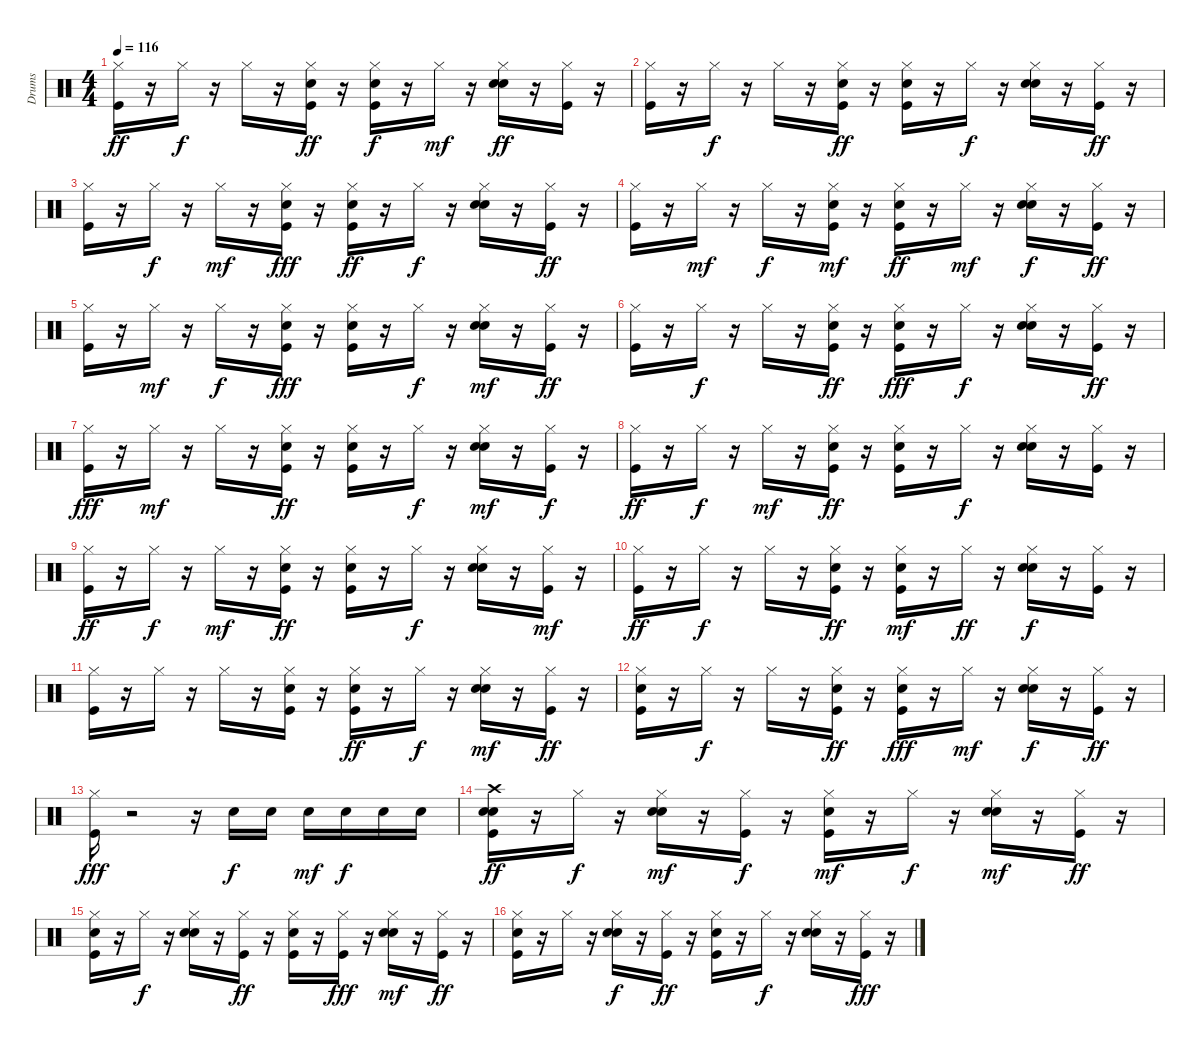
\track ("Drums   " "Drums   ") {instrument percussion}
\staff {score}
\articulation defaults
\ts (4 4)
\tempo 116
\clef neutral
\ks c
("Hi-Hat (closed)" "Kick (hit)").16{dy ff} r.16 "Hi-Hat (closed)".16{dy f} r.16 "Hi-Hat (closed)".16 r.16 ("Hi-Hat (closed)" "Hand Clap (hit)" "Kick (hit)").16{dy ff} r.16 ("Hi-Hat (closed)" "Hand Clap (hit)" "Kick (hit)").16{dy f} r.16 "Hi-Hat (closed)".16{dy mf} r.16 ("Hi-Hat (closed)" "Hand Clap (hit)" "Snare (hit) 2").16{dy ff} r.16 ("Hi-Hat (closed)" "Kick (hit)").16 r.16 |
("Hi-Hat (closed)" "Kick (hit)").16 r.16 "Hi-Hat (closed)".16{dy f} r.16 "Hi-Hat (closed)".16 r.16 ("Hi-Hat (closed)" "Hand Clap (hit)" "Kick (hit)").16{dy ff} r.16 ("Hi-Hat (closed)" "Hand Clap (hit)" "Kick (hit)").16 r.16 "Hi-Hat (closed)".16{dy f} r.16 ("Hi-Hat (closed)" "Hand Clap (hit)" "Snare (hit) 2").16 r.16 ("Hi-Hat (closed)" "Kick (hit)").16{dy ff} r.16 |
("Hi-Hat (closed)" "Kick (hit)").16 r.16 "Hi-Hat (closed)".16{dy f} r.16 "Hi-Hat (closed)".16{dy mf} r.16 ("Hi-Hat (closed)" "Hand Clap (hit)" "Kick (hit)").16{dy fff} r.16 ("Hi-Hat (closed)" "Hand Clap (hit)" "Kick (hit)").16{dy ff} r.16 "Hi-Hat (closed)".16{dy f} r.16 ("Hi-Hat (closed)" "Hand Clap (hit)" "Snare (hit) 2").16 r.16 ("Hi-Hat (closed)" "Kick (hit)").16{dy ff} r.16 |
("Hi-Hat (closed)" "Kick (hit)").16 r.16 "Hi-Hat (closed)".16{dy mf} r.16 "Hi-Hat (closed)".16{dy f} r.16 ("Hi-Hat (closed)" "Hand Clap (hit)" "Kick (hit)").16{dy mf} r.16 ("Hi-Hat (closed)" "Hand Clap (hit)" "Kick (hit)").16{dy ff} r.16 "Hi-Hat (closed)".16{dy mf} r.16 ("Hi-Hat (closed)" "Hand Clap (hit)" "Snare (hit) 2").16{dy f} r.16 ("Hi-Hat (closed)" "Kick (hit)").16{dy ff} r.16 |
("Hi-Hat (closed)" "Kick (hit)").16 r.16 "Hi-Hat (closed)".16{dy mf} r.16 "Hi-Hat (closed)".16{dy f} r.16 ("Hi-Hat (closed)" "Hand Clap (hit)" "Kick (hit)").16{dy fff} r.16 ("Hi-Hat (closed)" "Hand Clap (hit)" "Kick (hit)").16 r.16 "Hi-Hat (closed)".16{dy f} r.16 ("Hi-Hat (closed)" "Hand Clap (hit)" "Snare (hit) 2").16{dy mf} r.16 ("Hi-Hat (closed)" "Kick (hit)").16{dy ff} r.16 |
("Hi-Hat (closed)" "Kick (hit)").16 r.16 "Hi-Hat (closed)".16{dy f} r.16 "Hi-Hat (closed)".16 r.16 ("Hi-Hat (closed)" "Hand Clap (hit)" "Kick (hit)").16{dy ff} r.16 ("Hi-Hat (closed)" "Hand Clap (hit)" "Kick (hit)").16{dy fff} r.16 "Hi-Hat (closed)".16{dy f} r.16 ("Hi-Hat (closed)" "Hand Clap (hit)" "Snare (hit) 2").16 r.16 ("Hi-Hat (closed)" "Kick (hit)").16{dy ff} r.16 |
("Hi-Hat (closed)" "Kick (hit)").16{dy fff} r.16 "Hi-Hat (closed)".16{dy mf} r.16 "Hi-Hat (closed)".16 r.16 ("Hi-Hat (closed)" "Hand Clap (hit)" "Kick (hit)").16{dy ff} r.16 ("Hi-Hat (closed)" "Hand Clap (hit)" "Kick (hit)").16 r.16 "Hi-Hat (closed)".16{dy f} r.16 ("Hi-Hat (closed)" "Hand Clap (hit)" "Snare (hit) 2").16{dy mf} r.16 ("Hi-Hat (closed)" "Kick (hit)").16{dy f} r.16 |
("Hi-Hat (closed)" "Kick (hit)").16{dy ff} r.16 "Hi-Hat (closed)".16{dy f} r.16 "Hi-Hat (closed)".16{dy mf} r.16 ("Hi-Hat (closed)" "Hand Clap (hit)" "Kick (hit)").16{dy ff} r.16 ("Hi-Hat (closed)" "Hand Clap (hit)" "Kick (hit)").16 r.16 "Hi-Hat (closed)".16{dy f} r.16 ("Hi-Hat (closed)" "Hand Clap (hit)" "Snare (hit) 2").16 r.16 ("Hi-Hat (closed)" "Kick (hit)").16 r.16 |
("Hi-Hat (closed)" "Kick (hit)").16{dy ff} r.16 "Hi-Hat (closed)".16{dy f} r.16 "Hi-Hat (closed)".16{dy mf} r.16 ("Hi-Hat (closed)" "Hand Clap (hit)" "Kick (hit)").16{dy ff} r.16 ("Hi-Hat (closed)" "Hand Clap (hit)" "Kick (hit)").16 r.16 "Hi-Hat (closed)".16{dy f} r.16 ("Hi-Hat (closed)" "Hand Clap (hit)" "Snare (hit) 2").16 r.16 ("Hi-Hat (closed)" "Kick (hit)").16{dy mf} r.16 |
("Hi-Hat (closed)" "Kick (hit)").16{dy ff} r.16 "Hi-Hat (closed)".16{dy f} r.16 "Hi-Hat (closed)".16 r.16 ("Hi-Hat (closed)" "Hand Clap (hit)" "Kick (hit)").16{dy ff} r.16 ("Hi-Hat (closed)" "Hand Clap (hit)" "Kick (hit)").16{dy mf} r.16 "Hi-Hat (closed)".16{dy ff} r.16 ("Hi-Hat (closed)" "Hand Clap (hit)" "Snare (hit) 2").16{dy f} r.16 ("Hi-Hat (closed)" "Kick (hit)").16 r.16 |
("Hi-Hat (closed)" "Kick (hit)").16 r.16 "Hi-Hat (closed)".16 r.16 "Hi-Hat (closed)".16 r.16 ("Hi-Hat (closed)" "Hand Clap (hit)" "Kick (hit)").16 r.16 ("Hi-Hat (closed)" "Hand Clap (hit)" "Kick (hit)").16{dy ff} r.16 "Hi-Hat (closed)".16{dy f} r.16 ("Hi-Hat (closed)" "Hand Clap (hit)" "Snare (hit) 2").16{dy mf} r.16 ("Hi-Hat (closed)" "Kick (hit)").16{dy ff} r.16 |
("Hi-Hat (closed)" "Kick (hit)" "Hand Clap (hit)").16 r.16 "Hi-Hat (closed)".16{dy f} r.16 "Hi-Hat (closed)".16 r.16 ("Hi-Hat (closed)" "Hand Clap (hit)" "Kick (hit)").16{dy ff} r.16 ("Hi-Hat (closed)" "Hand Clap (hit)" "Kick (hit)").16{dy fff} r.16 "Hi-Hat (closed)".16{dy mf} r.16 ("Hi-Hat (closed)" "Hand Clap (hit)" "Snare (hit) 2").16{dy f} r.16 ("Hi-Hat (closed)" "Kick (hit)").16{dy ff} r.16 |
("Hi-Hat (closed)" "Kick (hit)").16{dy fff} r.2 r.16 "Snare (hit) 2".16{dy f} "Snare (hit) 2".16 "Snare (hit) 2".16{dy mf} "Snare (hit) 2".16{dy f} "Snare (hit) 2".16 "Snare (hit) 2".16 |
("Snare (hit) 2" "Crash high (hit)" "Kick (hit)" "Hand Clap (hit)").16{dy ff} r.16 "Hi-Hat (closed)".16{dy f} r.16 ("Snare (hit) 2" "Hi-Hat (closed)" "Hand Clap (hit)").16{dy mf} r.16 ("Hi-Hat (closed)" "Kick (hit)").16{dy f} r.16 ("Hi-Hat (closed)" "Kick (hit)" "Hand Clap (hit)").16{dy mf} r.16 "Hi-Hat (closed)".16{dy f} r.16 ("Snare (hit) 2" "Hi-Hat (closed)" "Hand Clap (hit)").16{dy mf} r.16 ("Hi-Hat (closed)" "Kick (hit)").16{dy ff} r.16 |
("Hi-Hat (closed)" "Kick (hit)" "Hand Clap (hit)").16 r.16 "Hi-Hat (closed)".16{dy f} r.16 ("Snare (hit) 2" "Hi-Hat (closed)" "Hand Clap (hit)").16 r.16 ("Hi-Hat (closed)" "Kick (hit)").16{dy ff} r.16 ("Hi-Hat (closed)" "Kick (hit)" "Hand Clap (hit)").16 r.16 ("Hi-Hat (closed)" "Kick (hit)").16{dy fff} r.16 ("Snare (hit) 2" "Hi-Hat (closed)" "Hand Clap (hit)").16{dy mf} r.16 ("Hi-Hat (closed)" "Kick (hit)").16{dy ff} r.16 |
("Hi-Hat (closed)" "Kick (hit)" "Hand Clap (hit)").16 r.16 "Hi-Hat (closed)".16 r.16 ("Snare (hit) 2" "Hi-Hat (closed)" "Hand Clap (hit)").16{dy f} r.16 ("Hi-Hat (closed)" "Kick (hit)").16{dy ff} r.16 ("Hi-Hat (closed)" "Kick (hit)" "Hand Clap (hit)").16 r.16 "Hi-Hat (closed)".16{dy f} r.16 ("Snare (hit) 2" "Hi-Hat (closed)" "Hand Clap (hit)").16 r.16 ("Hi-Hat (closed)" "Kick (hit)").16{dy fff} r.16
